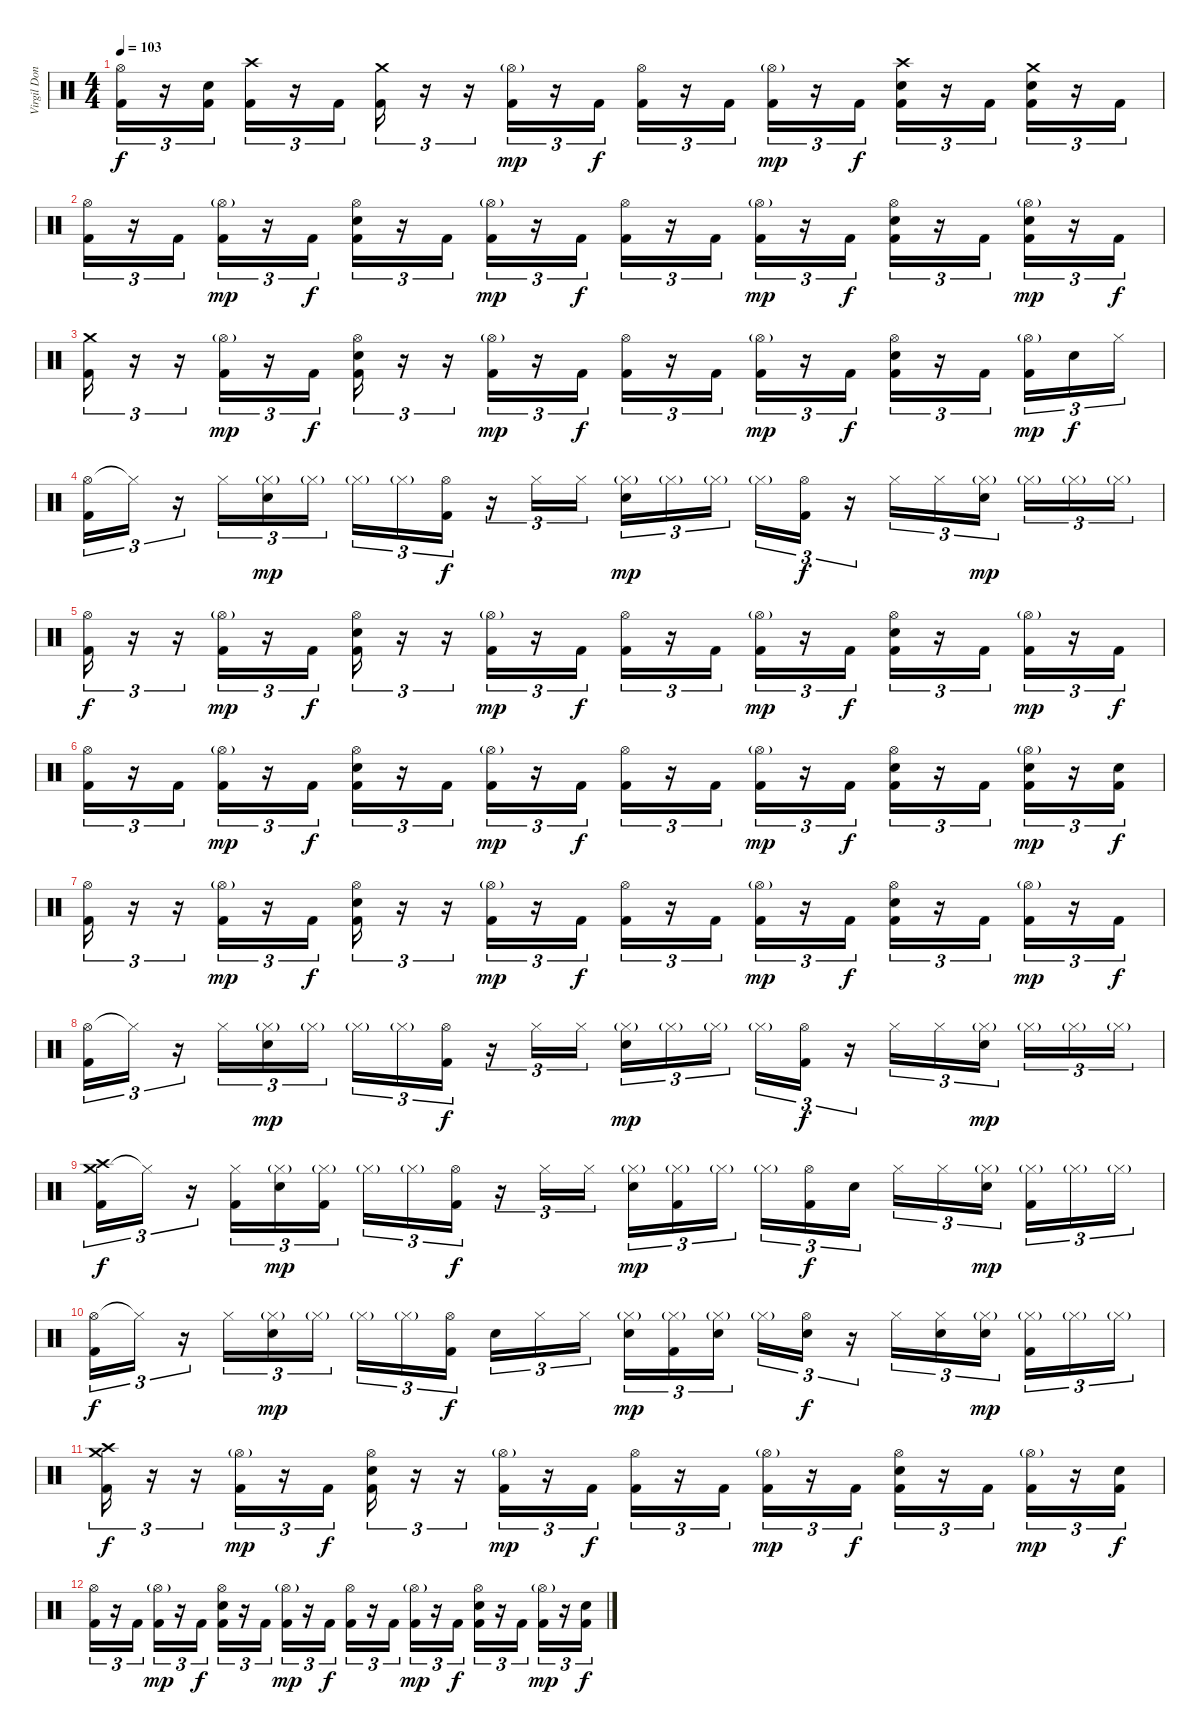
\track ("Virgil Donati" "Virgil Don") {instrument percussion}
\staff {score}
\articulation defaults
\ts (4 4)
\tempo 103
\clef neutral
\ks c
("Hi-Hat (open)" "Kick (hit) 2").16{tu (3 2) dy f} r.16{tu (3 2)} ("Snare (hit) 2" "Kick (hit) 2").16{tu (3 2)} ("Crash high (hit)" "Kick (hit) 2").16{tu (3 2)} r.16{tu (3 2)} "Kick (hit) 2".16{tu (3 2)} ("Crash medium (hit)" "Kick (hit) 2").16{tu (3 2)} r.16{tu (3 2)} r.16{tu (3 2)} ("Hi-Hat (open)"{g} "Kick (hit) 2").16{tu (3 2) dy mp} r.16{tu (3 2)} "Kick (hit) 2".16{tu (3 2) dy f} ("Hi-Hat (open)" "Kick (hit) 2").16{tu (3 2)} r.16{tu (3 2)} "Kick (hit) 2".16{tu (3 2)} ("Hi-Hat (open)"{g} "Kick (hit) 2").16{tu (3 2) dy mp} r.16{tu (3 2)} "Kick (hit) 2".16{tu (3 2) dy f} ("Crash high (hit)" "Snare (hit) 2" "Kick (hit) 2").16{tu (3 2)} r.16{tu (3 2)} "Kick (hit) 2".16{tu (3 2)} ("Crash medium (hit)" "Snare (hit) 2" "Kick (hit) 2").16{tu (3 2)} r.16{tu (3 2)} "Kick (hit) 2".16{tu (3 2)} |
("Hi-Hat (open)" "Kick (hit) 2").16{tu (3 2)} r.16{tu (3 2)} "Kick (hit) 2".16{tu (3 2)} ("Hi-Hat (open)"{g} "Kick (hit) 2").16{tu (3 2) dy mp} r.16{tu (3 2)} "Kick (hit) 2".16{tu (3 2) dy f} ("Hi-Hat (open)" "Snare (hit) 2" "Kick (hit) 2").16{tu (3 2)} r.16{tu (3 2)} "Kick (hit) 2".16{tu (3 2)} ("Hi-Hat (open)"{g} "Kick (hit) 2").16{tu (3 2) dy mp} r.16{tu (3 2)} "Kick (hit) 2".16{tu (3 2) dy f} ("Hi-Hat (open)" "Kick (hit) 2").16{tu (3 2)} r.16{tu (3 2)} "Kick (hit) 2".16{tu (3 2)} ("Hi-Hat (open)"{g} "Kick (hit) 2").16{tu (3 2) dy mp} r.16{tu (3 2)} "Kick (hit) 2".16{tu (3 2) dy f} ("Hi-Hat (open)" "Snare (hit) 2" "Kick (hit) 2").16{tu (3 2)} r.16{tu (3 2)} "Kick (hit) 2".16{tu (3 2)} ("Hi-Hat (open)"{g} "Snare (hit) 2" "Kick (hit) 2").16{tu (3 2) dy mp} r.16{tu (3 2)} "Kick (hit) 2".16{tu (3 2) dy f} |
("Crash medium (hit)" "Kick (hit) 2").16{tu (3 2)} r.16{tu (3 2)} r.16{tu (3 2)} ("Hi-Hat (open)"{g} "Kick (hit) 2").16{tu (3 2) dy mp} r.16{tu (3 2)} "Kick (hit) 2".16{tu (3 2) dy f} ("Hi-Hat (open)" "Snare (hit) 2" "Kick (hit) 2").16{tu (3 2)} r.16{tu (3 2)} r.16{tu (3 2)} ("Hi-Hat (open)"{g} "Kick (hit) 2").16{tu (3 2) dy mp} r.16{tu (3 2)} "Kick (hit) 2".16{tu (3 2) dy f} ("Hi-Hat (open)" "Kick (hit) 2").16{tu (3 2)} r.16{tu (3 2)} "Kick (hit) 2".16{tu (3 2)} ("Hi-Hat (open)"{g} "Kick (hit) 2").16{tu (3 2) dy mp} r.16{tu (3 2)} "Kick (hit) 2".16{tu (3 2) dy f} ("Hi-Hat (open)" "Snare (hit) 2" "Kick (hit) 2").16{tu (3 2)} r.16{tu (3 2)} "Kick (hit) 2".16{tu (3 2)} ("Hi-Hat (open)"{g} "Kick (hit) 2").16{tu (3 2) dy mp} "Snare (hit) 2".16{tu (3 2) dy f} "Hi-Hat (closed)".16{tu (3 2)} |
("Hi-Hat (open)" "Kick (hit) 2").16{tu (3 2)} "Hi-Hat (closed)"{t}.16{tu (3 2)} r.16{tu (3 2)} "Hi-Hat (closed)".16{tu (3 2)} ("Hi-Hat (closed)"{g} "Snare (hit) 2").16{tu (3 2) dy mp} "Hi-Hat (closed)"{g}.16{tu (3 2)} "Hi-Hat (closed)"{g}.16{tu (3 2)} "Hi-Hat (closed)"{g}.16{tu (3 2)} ("Hi-Hat (open)" "Kick (hit) 2").16{tu (3 2) dy f} r.16{tu (3 2)} "Hi-Hat (closed)".16{tu (3 2)} "Hi-Hat (closed)".16{tu (3 2)} ("Hi-Hat (closed)"{g} "Snare (hit) 2").16{tu (3 2) dy mp} "Hi-Hat (closed)"{g}.16{tu (3 2)} "Hi-Hat (closed)"{g}.16{tu (3 2)} "Hi-Hat (closed)"{g}.16{tu (3 2)} ("Hi-Hat (open)" "Kick (hit) 2").16{tu (3 2) dy f} r.16{tu (3 2)} "Hi-Hat (closed)".16{tu (3 2)} "Hi-Hat (closed)".16{tu (3 2)} ("Hi-Hat (closed)"{g} "Snare (hit) 2").16{tu (3 2) dy mp} "Hi-Hat (closed)"{g}.16{tu (3 2)} "Hi-Hat (closed)"{g}.16{tu (3 2)} "Hi-Hat (closed)"{g}.16{tu (3 2)} |
("Hi-Hat (open)" "Kick (hit) 2").16{tu (3 2) dy f} r.16{tu (3 2)} r.16{tu (3 2)} ("Hi-Hat (open)"{g} "Kick (hit) 2").16{tu (3 2) dy mp} r.16{tu (3 2)} "Kick (hit) 2".16{tu (3 2) dy f} ("Hi-Hat (open)" "Snare (hit) 2" "Kick (hit) 2").16{tu (3 2)} r.16{tu (3 2)} r.16{tu (3 2)} ("Hi-Hat (open)"{g} "Kick (hit) 2").16{tu (3 2) dy mp} r.16{tu (3 2)} "Kick (hit) 2".16{tu (3 2) dy f} ("Hi-Hat (open)" "Kick (hit) 2").16{tu (3 2)} r.16{tu (3 2)} "Kick (hit) 2".16{tu (3 2)} ("Hi-Hat (open)"{g} "Kick (hit) 2").16{tu (3 2) dy mp} r.16{tu (3 2)} "Kick (hit) 2".16{tu (3 2) dy f} ("Hi-Hat (open)" "Snare (hit) 2" "Kick (hit) 2").16{tu (3 2)} r.16{tu (3 2)} "Kick (hit) 2".16{tu (3 2)} ("Hi-Hat (open)"{g} "Kick (hit) 2").16{tu (3 2) dy mp} r.16{tu (3 2)} "Kick (hit) 2".16{tu (3 2) dy f} |
("Hi-Hat (open)" "Kick (hit) 2").16{tu (3 2)} r.16{tu (3 2)} "Kick (hit) 2".16{tu (3 2)} ("Hi-Hat (open)"{g} "Kick (hit) 2").16{tu (3 2) dy mp} r.16{tu (3 2)} "Kick (hit) 2".16{tu (3 2) dy f} ("Hi-Hat (open)" "Snare (hit) 2" "Kick (hit) 2").16{tu (3 2)} r.16{tu (3 2)} "Kick (hit) 2".16{tu (3 2)} ("Hi-Hat (open)"{g} "Kick (hit) 2").16{tu (3 2) dy mp} r.16{tu (3 2)} "Kick (hit) 2".16{tu (3 2) dy f} ("Hi-Hat (open)" "Kick (hit) 2").16{tu (3 2)} r.16{tu (3 2)} "Kick (hit) 2".16{tu (3 2)} ("Hi-Hat (open)"{g} "Kick (hit) 2").16{tu (3 2) dy mp} r.16{tu (3 2)} "Kick (hit) 2".16{tu (3 2) dy f} ("Hi-Hat (open)" "Snare (hit) 2" "Kick (hit) 2").16{tu (3 2)} r.16{tu (3 2)} "Kick (hit) 2".16{tu (3 2)} ("Hi-Hat (open)"{g} "Snare (hit) 2" "Kick (hit) 2").16{tu (3 2) dy mp} r.16{tu (3 2)} ("Snare (hit) 2" "Kick (hit) 2").16{tu (3 2) dy f} |
("Hi-Hat (open)" "Kick (hit) 2").16{tu (3 2)} r.16{tu (3 2)} r.16{tu (3 2)} ("Hi-Hat (open)"{g} "Kick (hit) 2").16{tu (3 2) dy mp} r.16{tu (3 2)} "Kick (hit) 2".16{tu (3 2) dy f} ("Hi-Hat (open)" "Snare (hit) 2" "Kick (hit) 2").16{tu (3 2)} r.16{tu (3 2)} r.16{tu (3 2)} ("Hi-Hat (open)"{g} "Kick (hit) 2").16{tu (3 2) dy mp} r.16{tu (3 2)} "Kick (hit) 2".16{tu (3 2) dy f} ("Hi-Hat (open)" "Kick (hit) 2").16{tu (3 2)} r.16{tu (3 2)} "Kick (hit) 2".16{tu (3 2)} ("Hi-Hat (open)"{g} "Kick (hit) 2").16{tu (3 2) dy mp} r.16{tu (3 2)} "Kick (hit) 2".16{tu (3 2) dy f} ("Hi-Hat (open)" "Snare (hit) 2" "Kick (hit) 2").16{tu (3 2)} r.16{tu (3 2)} "Kick (hit) 2".16{tu (3 2)} ("Hi-Hat (open)"{g} "Kick (hit) 2").16{tu (3 2) dy mp} r.16{tu (3 2)} "Kick (hit) 2".16{tu (3 2) dy f} |
("Hi-Hat (open)" "Kick (hit) 2").16{tu (3 2)} "Hi-Hat (closed)"{t}.16{tu (3 2)} r.16{tu (3 2)} "Hi-Hat (closed)".16{tu (3 2)} ("Hi-Hat (closed)"{g} "Snare (hit) 2").16{tu (3 2) dy mp} "Hi-Hat (closed)"{g}.16{tu (3 2)} "Hi-Hat (closed)"{g}.16{tu (3 2)} "Hi-Hat (closed)"{g}.16{tu (3 2)} ("Hi-Hat (open)" "Kick (hit) 2").16{tu (3 2) dy f} r.16{tu (3 2)} "Hi-Hat (closed)".16{tu (3 2)} "Hi-Hat (closed)".16{tu (3 2)} ("Hi-Hat (closed)"{g} "Snare (hit) 2").16{tu (3 2) dy mp} "Hi-Hat (closed)"{g}.16{tu (3 2)} "Hi-Hat (closed)"{g}.16{tu (3 2)} "Hi-Hat (closed)"{g}.16{tu (3 2)} ("Hi-Hat (open)" "Kick (hit) 2").16{tu (3 2) dy f} r.16{tu (3 2)} "Hi-Hat (closed)".16{tu (3 2)} "Hi-Hat (closed)".16{tu (3 2)} ("Hi-Hat (closed)"{g} "Snare (hit) 2").16{tu (3 2) dy mp} "Hi-Hat (closed)"{g}.16{tu (3 2)} "Hi-Hat (closed)"{g}.16{tu (3 2)} "Hi-Hat (closed)"{g}.16{tu (3 2)} |
("Crash medium (hit)" "Crash high (hit)" "Kick (hit) 2").16{tu (3 2) dy f} "Hi-Hat (closed)"{t}.16{tu (3 2)} r.16{tu (3 2)} ("Hi-Hat (closed)" "Kick (hit) 2").16{tu (3 2)} ("Hi-Hat (closed)"{g} "Snare (hit) 2").16{tu (3 2) dy mp} ("Hi-Hat (closed)"{g} "Kick (hit) 2").16{tu (3 2)} "Hi-Hat (closed)"{g}.16{tu (3 2)} "Hi-Hat (closed)"{g}.16{tu (3 2)} ("Hi-Hat (open)" "Kick (hit) 2").16{tu (3 2) dy f} r.16{tu (3 2)} "Hi-Hat (closed)".16{tu (3 2)} "Hi-Hat (closed)".16{tu (3 2)} ("Hi-Hat (closed)"{g} "Snare (hit) 2").16{tu (3 2) dy mp} ("Hi-Hat (closed)"{g} "Kick (hit) 2").16{tu (3 2)} "Hi-Hat (closed)"{g}.16{tu (3 2)} "Hi-Hat (closed)"{g}.16{tu (3 2)} ("Hi-Hat (open)" "Kick (hit) 2").16{tu (3 2) dy f} "Snare (hit) 2".16{tu (3 2)} "Hi-Hat (closed)".16{tu (3 2)} "Hi-Hat (closed)".16{tu (3 2)} ("Hi-Hat (closed)"{g} "Snare (hit) 2").16{tu (3 2) dy mp} ("Hi-Hat (closed)"{g} "Kick (hit) 2").16{tu (3 2)} "Hi-Hat (closed)"{g}.16{tu (3 2)} "Hi-Hat (closed)"{g}.16{tu (3 2)} |
("Hi-Hat (open)" "Kick (hit) 2").16{tu (3 2) dy f} "Hi-Hat (closed)"{t}.16{tu (3 2)} r.16{tu (3 2)} "Hi-Hat (closed)".16{tu (3 2)} ("Hi-Hat (closed)"{g} "Snare (hit) 2").16{tu (3 2) dy mp} "Hi-Hat (closed)"{g}.16{tu (3 2)} "Hi-Hat (closed)"{g}.16{tu (3 2)} "Hi-Hat (closed)"{g}.16{tu (3 2)} ("Hi-Hat (open)" "Kick (hit) 2").16{tu (3 2) dy f} "Snare (hit) 2".16{tu (3 2)} "Hi-Hat (closed)".16{tu (3 2)} "Hi-Hat (closed)".16{tu (3 2)} ("Hi-Hat (closed)"{g} "Snare (hit) 2").16{tu (3 2) dy mp} ("Hi-Hat (closed)"{g} "Kick (hit) 2").16{tu (3 2)} ("Hi-Hat (closed)"{g} "Snare (hit) 2").16{tu (3 2)} "Hi-Hat (closed)"{g}.16{tu (3 2)} ("Hi-Hat (open)" "Snare (hit) 2").16{tu (3 2) dy f} r.16{tu (3 2)} "Hi-Hat (closed)".16{tu (3 2)} ("Hi-Hat (closed)" "Snare (hit) 2").16{tu (3 2)} ("Hi-Hat (closed)"{g} "Snare (hit) 2").16{tu (3 2) dy mp} ("Hi-Hat (closed)"{g} "Kick (hit) 2").16{tu (3 2)} "Hi-Hat (closed)"{g}.16{tu (3 2)} "Hi-Hat (closed)"{g}.16{tu (3 2)} |
("Crash medium (hit)" "Crash high (hit)" "Kick (hit) 2").16{tu (3 2) dy f volume 0} r.16{tu (3 2)} r.16{tu (3 2)} ("Hi-Hat (open)"{g} "Kick (hit) 2").16{tu (3 2) dy mp} r.16{tu (3 2)} "Kick (hit) 2".16{tu (3 2) dy f} ("Hi-Hat (open)" "Snare (hit) 2" "Kick (hit) 2").16{tu (3 2)} r.16{tu (3 2)} r.16{tu (3 2)} ("Hi-Hat (open)"{g} "Kick (hit) 2").16{tu (3 2) dy mp} r.16{tu (3 2)} "Kick (hit) 2".16{tu (3 2) dy f} ("Hi-Hat (open)" "Kick (hit) 2").16{tu (3 2)} r.16{tu (3 2)} "Kick (hit) 2".16{tu (3 2)} ("Hi-Hat (open)"{g} "Kick (hit) 2").16{tu (3 2) dy mp} r.16{tu (3 2)} "Kick (hit) 2".16{tu (3 2) dy f} ("Hi-Hat (open)" "Snare (hit) 2" "Kick (hit) 2").16{tu (3 2)} r.16{tu (3 2)} "Kick (hit) 2".16{tu (3 2)} ("Hi-Hat (open)"{g} "Kick (hit) 2").16{tu (3 2) dy mp} r.16{tu (3 2)} ("Snare (hit) 2" "Kick (hit) 2").16{tu (3 2) dy f} |
("Hi-Hat (open)" "Kick (hit) 2").16{tu (3 2)} r.16{tu (3 2)} "Kick (hit) 2".16{tu (3 2)} ("Hi-Hat (open)"{g} "Kick (hit) 2").16{tu (3 2) dy mp} r.16{tu (3 2)} "Kick (hit) 2".16{tu (3 2) dy f} ("Hi-Hat (open)" "Snare (hit) 2" "Kick (hit) 2").16{tu (3 2)} r.16{tu (3 2)} "Kick (hit) 2".16{tu (3 2)} ("Hi-Hat (open)"{g} "Kick (hit) 2").16{tu (3 2) dy mp} r.16{tu (3 2)} "Kick (hit) 2".16{tu (3 2) dy f} ("Hi-Hat (open)" "Kick (hit) 2").16{tu (3 2)} r.16{tu (3 2)} "Kick (hit) 2".16{tu (3 2)} ("Hi-Hat (open)"{g} "Kick (hit) 2").16{tu (3 2) dy mp} r.16{tu (3 2)} "Kick (hit) 2".16{tu (3 2) dy f} ("Hi-Hat (open)" "Snare (hit) 2" "Kick (hit) 2").16{tu (3 2)} r.16{tu (3 2)} "Kick (hit) 2".16{tu (3 2)} ("Hi-Hat (open)"{g} "Kick (hit) 2").16{tu (3 2) dy mp} r.16{tu (3 2)} ("Snare (hit) 2" "Kick (hit) 2").16{tu (3 2) dy f}
